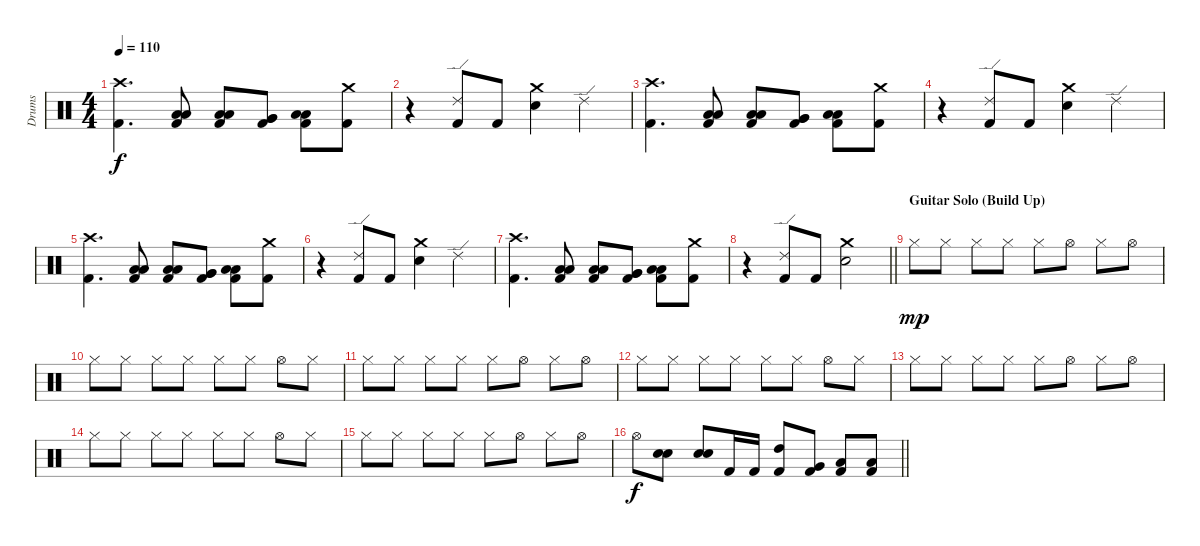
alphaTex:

\track ("Drums" "Drums") {instrument percussion}
\staff {score}
\articulation defaults
\ts (4 4)
\tempo 110
\clef neutral
\ks c
("Crash high (hit)" "Kick (hit) 2").4{d dy f} ("Low Tom (hit)" "Low Tom (hit)" "Kick (hit) 2").8{bu 30} ("Low Tom (hit)" "Low Tom (hit)" "Kick (hit) 2").8{bu 30} ("Very Low Tom (hit)" "Very Low Tom (hit)" "Kick (hit) 2").8{bu 30} ("Low Floor Tom (hit)" "Low Floor Tom (hit)" "Kick (hit) 2").8{bu 30} ("Crash medium (hit)" "Kick (hit) 2").8 |
r.4 ("Ride (edge) 2" "Kick (hit) 2").8 "Kick (hit) 2".8 ("Crash medium (hit)" "Electric Snare (hit)").4 "Ride (edge) 2".4 |
("Crash high (hit)" "Kick (hit) 2").4{d} ("Low Tom (hit)" "Low Tom (hit)" "Kick (hit) 2").8{bu 30} ("Low Tom (hit)" "Low Tom (hit)" "Kick (hit) 2").8{bu 30} ("Very Low Tom (hit)" "Very Low Tom (hit)" "Kick (hit) 2").8{bu 30} ("Low Floor Tom (hit)" "Low Floor Tom (hit)" "Kick (hit) 2").8{bu 30} ("Crash medium (hit)" "Kick (hit) 2").8 |
r.4 ("Ride (edge) 2" "Kick (hit) 2").8 "Kick (hit) 2".8 ("Crash medium (hit)" "Electric Snare (hit)").4 "Ride (edge) 2".4 |
("Crash high (hit)" "Kick (hit) 2").4{d} ("Low Tom (hit)" "Low Tom (hit)" "Kick (hit) 2").8{bu 30} ("Low Tom (hit)" "Low Tom (hit)" "Kick (hit) 2").8{bu 30} ("Very Low Tom (hit)" "Very Low Tom (hit)" "Kick (hit) 2").8{bu 30} ("Low Floor Tom (hit)" "Low Floor Tom (hit)" "Kick (hit) 2").8{bu 30} ("Crash medium (hit)" "Kick (hit) 2").8 |
r.4 ("Ride (edge) 2" "Kick (hit) 2").8 "Kick (hit) 2".8 ("Crash medium (hit)" "Electric Snare (hit)").4 "Ride (edge) 2".4 |
("Crash high (hit)" "Kick (hit) 2").4{d} ("Low Tom (hit)" "Low Tom (hit)" "Kick (hit) 2").8{bu 30} ("Low Tom (hit)" "Low Tom (hit)" "Kick (hit) 2").8{bu 30} ("Very Low Tom (hit)" "Very Low Tom (hit)" "Kick (hit) 2").8{bu 30} ("Low Floor Tom (hit)" "Low Floor Tom (hit)" "Kick (hit) 2").8{bu 30} ("Crash medium (hit)" "Kick (hit) 2").8 |
\barLineRight lightlight
r.4 ("Ride (edge) 2" "Kick (hit) 2").8 "Kick (hit) 2".8 ("Crash medium (hit)" "Electric Snare (hit)").2 |
\section ("" "Guitar Solo (Build Up)")
"Hi-Hat (closed)".8{dy mp} "Hi-Hat (closed)".8 "Hi-Hat (closed)".8 "Hi-Hat (closed)".8 "Hi-Hat (closed)".8 "Hi-Hat (open)".8 "Hi-Hat (closed)".8 "Hi-Hat (open)".8 |
"Hi-Hat (closed)".8 "Hi-Hat (closed)".8 "Hi-Hat (closed)".8 "Hi-Hat (closed)".8 "Hi-Hat (closed)".8 "Hi-Hat (closed)".8 "Hi-Hat (open)".8 "Hi-Hat (closed)".8 |
"Hi-Hat (closed)".8 "Hi-Hat (closed)".8 "Hi-Hat (closed)".8 "Hi-Hat (closed)".8 "Hi-Hat (closed)".8 "Hi-Hat (open)".8 "Hi-Hat (closed)".8 "Hi-Hat (open)".8 |
"Hi-Hat (closed)".8 "Hi-Hat (closed)".8 "Hi-Hat (closed)".8 "Hi-Hat (closed)".8 "Hi-Hat (closed)".8 "Hi-Hat (closed)".8 "Hi-Hat (open)".8 "Hi-Hat (closed)".8 |
"Hi-Hat (closed)".8 "Hi-Hat (closed)".8 "Hi-Hat (closed)".8 "Hi-Hat (closed)".8 "Hi-Hat (closed)".8 "Hi-Hat (open)".8 "Hi-Hat (closed)".8 "Hi-Hat (open)".8 |
"Hi-Hat (closed)".8 "Hi-Hat (closed)".8 "Hi-Hat (closed)".8 "Hi-Hat (closed)".8 "Hi-Hat (closed)".8 "Hi-Hat (closed)".8 "Hi-Hat (open)".8 "Hi-Hat (closed)".8 |
"Hi-Hat (closed)".8 "Hi-Hat (closed)".8 "Hi-Hat (closed)".8 "Hi-Hat (closed)".8 "Hi-Hat (closed)".8 "Hi-Hat (open)".8 "Hi-Hat (closed)".8 "Hi-Hat (open)".8 |
\barLineRight lightlight "Hi-Hat (open)".8{dy f}
("Electric Snare (hit)" "Electric Snare (hit)").8{bu 30} ("Electric Snare (hit)" "Electric Snare (hit)").8{bu 30} "Kick (hit) 2".16 "Kick (hit) 2".16 ("High Tom (hit)" "Kick (hit) 2").8 ("Very Low Tom (hit)" "Kick (hit) 2").8 ("Low Tom (hit)" "Kick (hit) 2").8 ("Low Floor Tom (hit)" "Kick (hit) 2").8
